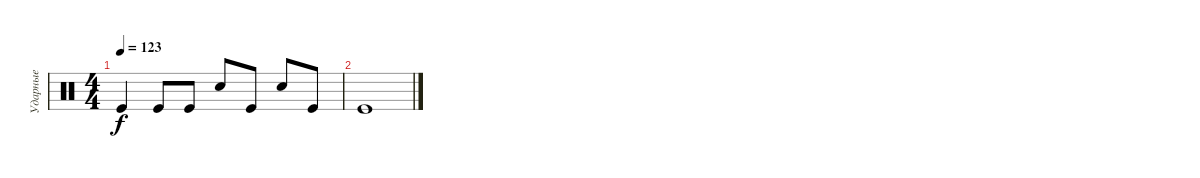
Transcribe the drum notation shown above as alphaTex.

\track ("Ударные" "Ударные") {instrument percussion}
\staff {score}
\articulation defaults
\ts (4 4)
\tempo 123
\clef neutral
\ks c "Kick (hit)".4{dy f} "Kick (hit)".8 "Kick (hit)".8 "Electric Snare (hit)".8 "Kick (hit)".8 "Electric Snare (hit)".8 "Kick (hit)".8
|
"Kick (hit)".1
